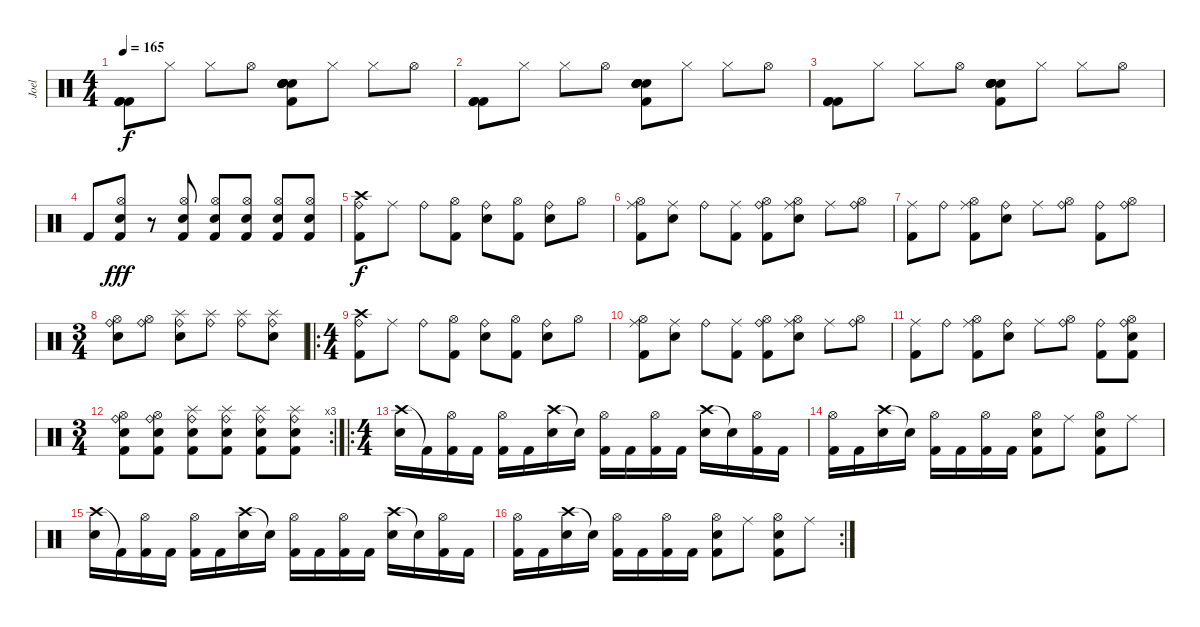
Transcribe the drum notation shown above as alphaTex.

\track ("Joel" "Joel") {instrument percussion}
\staff {score}
\articulation defaults
\ts (4 4)
\tempo 165
\clef neutral
\ks c
("Kick (hit) 2" "Kick (hit) 2" "Kick (hit) 2").8{dy f} "Hi-Hat (closed)".8 "Hi-Hat (closed)".8 "Hi-Hat (open)".8 ("Electric Snare (hit)" "Electric Snare (hit)" "Electric Snare (hit)" "Electric Snare (hit)" "Kick (hit) 2" "Electric Snare (hit)").8 "Hi-Hat (closed)".8 "Hi-Hat (closed)".8 "Hi-Hat (open)".8 |
("Kick (hit) 2" "Kick (hit) 2" "Kick (hit) 2").8 "Hi-Hat (closed)".8 "Hi-Hat (closed)".8 "Hi-Hat (open)".8 ("Electric Snare (hit)" "Electric Snare (hit)" "Electric Snare (hit)" "Electric Snare (hit)" "Kick (hit) 2" "Electric Snare (hit)").8 "Hi-Hat (closed)".8 "Hi-Hat (closed)".8 "Hi-Hat (open)".8 |
("Kick (hit) 2" "Kick (hit) 2" "Kick (hit) 2").8 "Hi-Hat (closed)".8 "Hi-Hat (closed)".8 "Hi-Hat (open)".8 ("Electric Snare (hit)" "Electric Snare (hit)" "Electric Snare (hit)" "Electric Snare (hit)" "Kick (hit) 2" "Electric Snare (hit)").8 "Hi-Hat (closed)".8 "Hi-Hat (closed)".8 "Hi-Hat (open)".8 |
"Kick (hit) 2".8 ("Hi-Hat (open)" "Kick (hit) 2" "Electric Snare (hit)").8{dy fff} r.8 ("Hi-Hat (open)" "Kick (hit) 2" "Electric Snare (hit)").8 ("Hi-Hat (open)" "Kick (hit) 2" "Electric Snare (hit)").8 ("Hi-Hat (open)" "Kick (hit) 2" "Electric Snare (hit)").8 ("Hi-Hat (open)" "Kick (hit) 2" "Electric Snare (hit)").8 ("Hi-Hat (open)" "Kick (hit) 2" "Electric Snare (hit)").8 |
("Crash high (hit)" "Ride (bell)" "Kick (hit) 2").8{dy f} "Ride (middle)".8 "Ride (bell)".8 ("Hi-Hat (open)" "Kick (hit) 2").8 ("Ride (bell)" "Electric Snare (hit)").8 ("Hi-Hat (open)" "Kick (hit) 2").8 ("Ride (bell)" "Electric Snare (hit)").8 "Hi-Hat (open)".8 |
("Ride (middle)" "Hi-Hat (open)" "Kick (hit) 2").8 ("Ride (middle)" "Electric Snare (hit)").8 "Ride (bell)".8 ("Ride (middle)" "Kick (hit) 2").8 ("Ride (bell)" "Hi-Hat (open)" "Kick (hit) 2").8 ("Ride (middle)" "Hi-Hat (open)" "Electric Snare (hit)").8 "Ride (middle)".8 ("Ride (bell)" "Hi-Hat (open)").8 |
("Ride (middle)" "Kick (hit) 2").8 "Ride (bell)".8 ("Ride (middle)" "Hi-Hat (open)" "Kick (hit) 2").8 ("Ride (bell)" "Electric Snare (hit)").8 "Ride (middle)".8 ("Ride (bell)" "Hi-Hat (open)").8 ("Ride (bell)" "Kick (hit) 2").8 ("Ride (bell)" "Hi-Hat (open)").8 |
\ts (3 4)
("Ride (bell)" "Hi-Hat (open)" "Electric Snare (hit)").8 ("Ride (bell)" "Hi-Hat (open)").8 ("Ride (bell)" "Splash (hit)" "Electric Snare (hit)").8 ("Ride (bell)" "Splash (hit)").8 ("Ride (bell)" "Splash (hit)").8 ("Ride (bell)" "Splash (hit)" "Electric Snare (hit)").8 |
\ro
\ts (4 4)
("Crash high (hit)" "Ride (bell)" "Kick (hit) 2").8 "Ride (middle)".8 "Ride (bell)".8 ("Hi-Hat (open)" "Kick (hit) 2").8 ("Ride (bell)" "Electric Snare (hit)").8 ("Hi-Hat (open)" "Kick (hit) 2").8 ("Ride (bell)" "Electric Snare (hit)").8 "Hi-Hat (open)".8 |
("Ride (middle)" "Hi-Hat (open)" "Kick (hit) 2").8 ("Ride (middle)" "Electric Snare (hit)").8 "Ride (bell)".8 ("Ride (middle)" "Kick (hit) 2").8 ("Ride (bell)" "Hi-Hat (open)" "Kick (hit) 2").8 ("Ride (middle)" "Hi-Hat (open)" "Electric Snare (hit)").8 "Ride (middle)".8 ("Ride (bell)" "Hi-Hat (open)").8 |
("Ride (middle)" "Kick (hit) 2").8 "Ride (bell)".8 ("Ride (middle)" "Hi-Hat (open)" "Kick (hit) 2").8 ("Ride (bell)" "Electric Snare (hit)").8 "Ride (middle)".8 ("Ride (bell)" "Hi-Hat (open)").8 ("Ride (bell)" "Kick (hit) 2").8 ("Ride (bell)" "Hi-Hat (open)" "Kick (hit) 2" "Electric Snare (hit)").8 |
\rc 3
\ts (3 4)
("Ride (bell)" "Hi-Hat (open)" "Kick (hit) 2" "Electric Snare (hit)").8 ("Ride (bell)" "Hi-Hat (open)" "Kick (hit) 2" "Electric Snare (hit)").8 ("Ride (bell)" "Splash (hit)" "Kick (hit) 2" "Electric Snare (hit)").8 ("Ride (bell)" "Splash (hit)" "Kick (hit) 2" "Electric Snare (hit)").8 ("Ride (bell)" "Splash (hit)" "Kick (hit) 2" "Electric Snare (hit)").8 ("Ride (bell)" "Splash (hit)" "Kick (hit) 2" "Electric Snare (hit)").8 |
\ro
\ts (4 4)
("Crash high (hit)" "Electric Snare (hit)").16{volume 13} "Kick (hit) 2"{t}.16 ("Hi-Hat (open)" "Kick (hit) 2").16 "Kick (hit) 2".16 ("Hi-Hat (open)" "Kick (hit) 2").16 "Kick (hit) 2".16 ("Crash high (hit)" "Electric Snare (hit)").16 "Snare (hit)"{t}.16 ("Hi-Hat (open)" "Kick (hit) 2").16 "Kick (hit) 2".16 ("Hi-Hat (open)" "Kick (hit) 2").16 "Kick (hit) 2".16 ("Crash high (hit)" "Electric Snare (hit)").16 "Snare (hit)"{t}.16 ("Hi-Hat (open)" "Kick (hit) 2").16 "Kick (hit) 2".16 |
("Hi-Hat (open)" "Kick (hit) 2").16 "Kick (hit) 2".16 ("Crash high (hit)" "Electric Snare (hit)").16 "Snare (hit)"{t}.16 ("Hi-Hat (open)" "Kick (hit) 2").16 "Kick (hit) 2".16 ("Hi-Hat (open)" "Kick (hit) 2").16 "Kick (hit) 2".16 ("Hi-Hat (open)" "Electric Snare (hit)" "Kick (hit) 2").8 "Ride (middle)".8 ("Hi-Hat (open)" "Electric Snare (hit)" "Kick (hit) 2").8 "Ride (middle)".8 |
("Crash high (hit)" "Electric Snare (hit)").16 "Kick (hit) 2"{t}.16 ("Hi-Hat (open)" "Kick (hit) 2").16 "Kick (hit) 2".16 ("Hi-Hat (open)" "Kick (hit) 2").16 "Kick (hit) 2".16 ("Crash high (hit)" "Electric Snare (hit)").16 "Snare (hit)"{t}.16 ("Hi-Hat (open)" "Kick (hit) 2").16 "Kick (hit) 2".16 ("Hi-Hat (open)" "Kick (hit) 2").16 "Kick (hit) 2".16 ("Crash high (hit)" "Electric Snare (hit)").16 "Snare (hit)"{t}.16 ("Hi-Hat (open)" "Kick (hit) 2").16 "Kick (hit) 2".16 |
\rc 2
("Hi-Hat (open)" "Kick (hit) 2").16 "Kick (hit) 2".16 ("Crash high (hit)" "Electric Snare (hit)").16 "Snare (hit)"{t}.16 ("Hi-Hat (open)" "Kick (hit) 2").16 "Kick (hit) 2".16 ("Hi-Hat (open)" "Kick (hit) 2").16 "Kick (hit) 2".16 ("Hi-Hat (open)" "Electric Snare (hit)" "Kick (hit) 2").8 "Ride (middle)".8 ("Hi-Hat (open)" "Electric Snare (hit)" "Kick (hit) 2").8 "Ride (middle)".8
